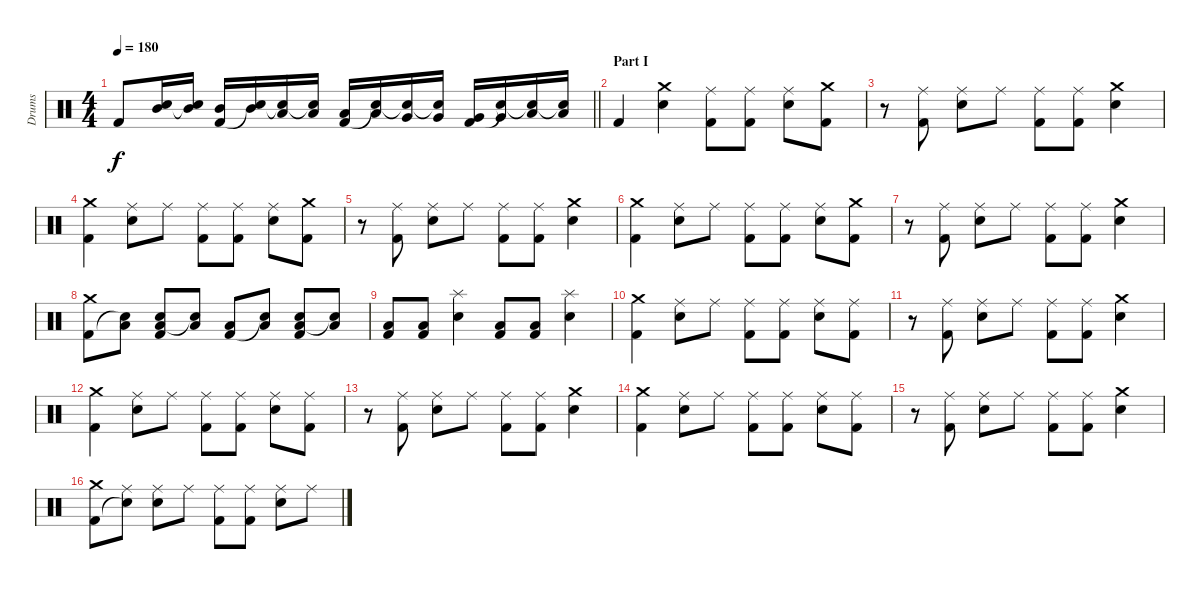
\track ("Drums" "Drums") {instrument percussion}
\staff {score}
\articulation defaults
\ts (4 4)
\tempo 180
\clef neutral
\barLineRight lightlight
\ks c "Kick (hit) 2".8{dy f}
("Mid Tom (hit)" "Snare (hit)"{t}).16 ("Mid Tom (hit)" "Snare (hit)"{t}).16 ("Mid Tom (hit)" "Kick (hit) 2").16 ("Mid Tom (hit)" "Snare (hit)"{t}).16 ("Low Tom (hit)" "Snare (hit)"{t}).16 ("Low Tom (hit)" "Snare (hit)"{t}).16 ("Low Tom (hit)" "Kick (hit) 2").16 ("Low Tom (hit)" "Snare (hit)"{t}).16 ("Very Low Tom (hit)" "Snare (hit)"{t}).16 ("Very Low Tom (hit)" "Snare (hit)"{t}).16 ("Very Low Tom (hit)" "Kick (hit) 2").16 ("Very Low Tom (hit)" "Snare (hit)"{t}).16 ("Low Floor Tom (hit)" "Snare (hit)"{t}).16 ("Low Floor Tom (hit)" "Snare (hit)"{t}).16 |
\section ("" "Part I")
"Kick (hit) 2".4 ("Crash medium (hit)" "Electric Snare (hit)").4 ("Ride (middle)" "Kick (hit) 2").8 ("Ride (middle)" "Kick (hit) 2").8 ("Ride (middle)" "Electric Snare (hit)").8 ("Crash medium (hit)" "Kick (hit) 2").8 |
r.8 ("Ride (middle)" "Kick (hit) 2").8 ("Ride (middle)" "Electric Snare (hit)").8 "Ride (middle)".8 ("Ride (middle)" "Kick (hit) 2").8 ("Ride (middle)" "Kick (hit) 2").8 ("Crash medium (hit)" "Electric Snare (hit)").4 |
("Crash medium (hit)" "Kick (hit) 2").4 ("Ride (middle)" "Electric Snare (hit)").8 "Ride (middle)".8 ("Ride (middle)" "Kick (hit) 2").8 ("Ride (middle)" "Kick (hit) 2").8 ("Ride (middle)" "Electric Snare (hit)").8 ("Crash medium (hit)" "Kick (hit) 2").8 |
r.8 ("Ride (middle)" "Kick (hit) 2").8 ("Ride (middle)" "Electric Snare (hit)").8 "Ride (middle)".8 ("Ride (middle)" "Kick (hit) 2").8 ("Ride (middle)" "Kick (hit) 2").8 ("Crash medium (hit)" "Electric Snare (hit)").4 |
("Crash medium (hit)" "Kick (hit) 2").4 ("Ride (middle)" "Electric Snare (hit)").8 "Ride (middle)".8 ("Ride (middle)" "Kick (hit) 2").8 ("Ride (middle)" "Kick (hit) 2").8 ("Ride (middle)" "Electric Snare (hit)").8 ("Crash medium (hit)" "Kick (hit) 2").8 |
r.8 ("Ride (middle)" "Kick (hit) 2").8 ("Ride (middle)" "Electric Snare (hit)").8 "Ride (middle)".8 ("Ride (middle)" "Kick (hit) 2").8 ("Ride (middle)" "Kick (hit) 2").8 ("Crash medium (hit)" "Electric Snare (hit)").4 |
("Crash medium (hit)" "Kick (hit) 2").8 ("Low Floor Tom (hit)" "Snare (hit)"{t}).8 ("Electric Snare (hit)" "Low Floor Tom (hit)" "Kick (hit) 2").8 ("Low Floor Tom (hit)" "Snare (hit)"{t}).8 ("Low Floor Tom (hit)" "Kick (hit) 2").8 ("Low Floor Tom (hit)" "Snare (hit)"{t}).8 ("Electric Snare (hit)" "Low Floor Tom (hit)" "Kick (hit) 2").8 ("Low Floor Tom (hit)" "Snare (hit)"{t}).8 |
("Low Floor Tom (hit)" "Kick (hit) 2").8 ("Low Floor Tom (hit)" "Kick (hit) 2").8 ("Splash (hit)" "Electric Snare (hit)").4 ("Low Floor Tom (hit)" "Kick (hit) 2").8 ("Low Floor Tom (hit)" "Kick (hit) 2").8 ("Splash (hit)" "Electric Snare (hit)").4 |
("Crash medium (hit)" "Kick (hit) 2").4 ("Ride (middle)" "Electric Snare (hit)").8 "Ride (middle)".8 ("Ride (middle)" "Kick (hit) 2").8 ("Ride (middle)" "Kick (hit) 2").8 ("Ride (middle)" "Electric Snare (hit)").8 ("Ride (middle)" "Kick (hit) 2").8 |
r.8 ("Ride (middle)" "Kick (hit) 2").8 ("Ride (middle)" "Electric Snare (hit)").8 "Ride (middle)".8 ("Ride (middle)" "Kick (hit) 2").8 ("Ride (middle)" "Kick (hit) 2").8 ("Crash medium (hit)" "Electric Snare (hit)").4 |
("Crash medium (hit)" "Kick (hit) 2").4 ("Ride (middle)" "Electric Snare (hit)").8 "Ride (middle)".8 ("Ride (middle)" "Kick (hit) 2").8 ("Ride (middle)" "Kick (hit) 2").8 ("Ride (middle)" "Electric Snare (hit)").8 ("Ride (middle)" "Kick (hit) 2").8 |
r.8 ("Ride (middle)" "Kick (hit) 2").8 ("Ride (middle)" "Electric Snare (hit)").8 "Ride (middle)".8 ("Ride (middle)" "Kick (hit) 2").8 ("Ride (middle)" "Kick (hit) 2").8 ("Crash medium (hit)" "Electric Snare (hit)").4 |
("Crash medium (hit)" "Kick (hit) 2").4 ("Ride (middle)" "Electric Snare (hit)").8 "Ride (middle)".8 ("Ride (middle)" "Kick (hit) 2").8 ("Ride (middle)" "Kick (hit) 2").8 ("Ride (middle)" "Electric Snare (hit)").8 ("Ride (middle)" "Kick (hit) 2").8 |
r.8 ("Ride (middle)" "Kick (hit) 2").8 ("Ride (middle)" "Electric Snare (hit)").8 "Ride (middle)".8 ("Ride (middle)" "Kick (hit) 2").8 ("Ride (middle)" "Kick (hit) 2").8 ("Crash medium (hit)" "Electric Snare (hit)").4 |
("Crash medium (hit)" "Kick (hit) 2").8 ("Ride (middle)" "Snare (hit)"{t}).8 ("Ride (middle)" "Electric Snare (hit)").8 "Ride (middle)".8 ("Ride (middle)" "Kick (hit) 2").8 ("Ride (middle)" "Kick (hit) 2").8 ("Ride (middle)" "Electric Snare (hit)").8 "Ride (middle)".8
